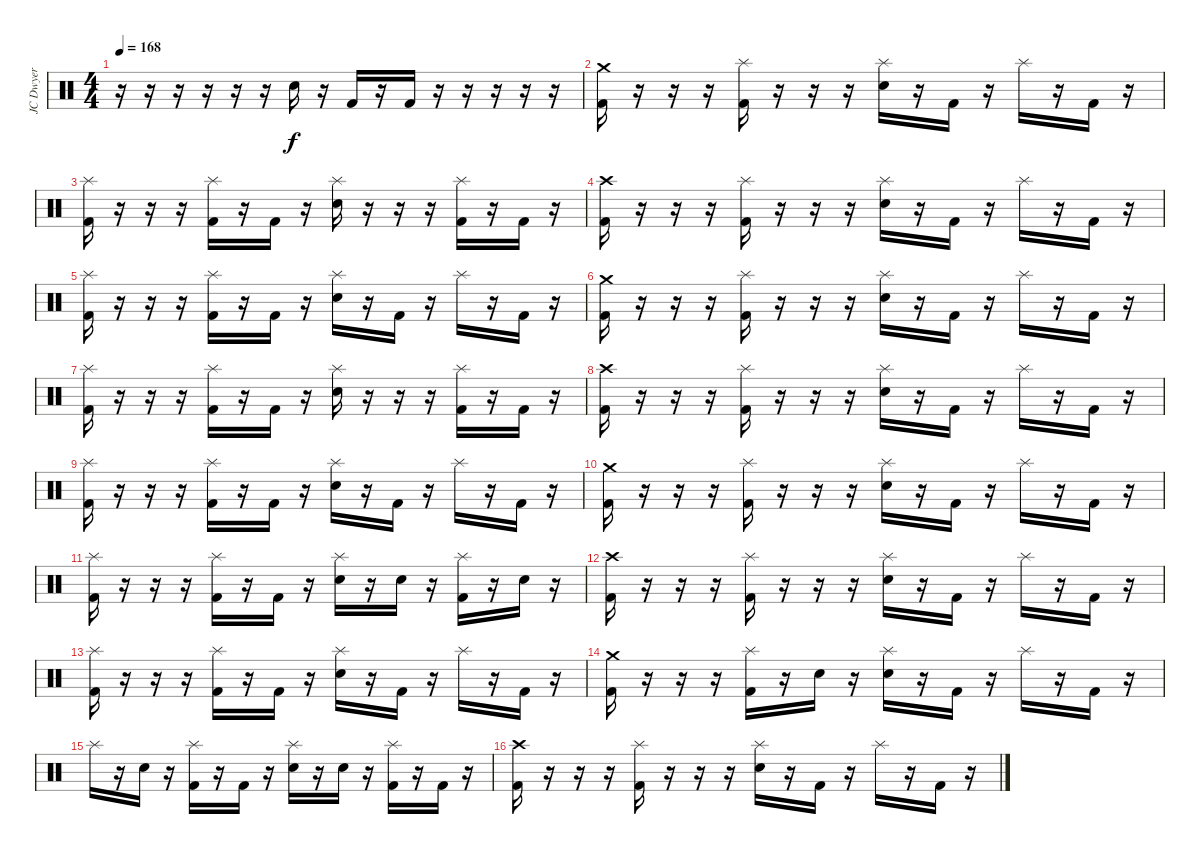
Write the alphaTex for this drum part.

\track ("JC Dwyer" "JC Dwyer") {instrument percussion}
\staff {score}
\articulation defaults
\ts (4 4)
\tempo 168
\clef neutral
\ks c
r.16{dy f} r.16 r.16 r.16 r.16 r.16 "Electric Snare (hit)".16 r.16 "Kick (hit) 2".16 r.16 "Kick (hit) 2".16 r.16 r.16 r.16 r.16 r.16 |
("Crash medium (hit)" "Kick (hit) 2").16 r.16 r.16 r.16 ("Splash (hit)" "Kick (hit) 2").16 r.16 r.16 r.16 ("Splash (hit)" "Electric Snare (hit)").16 r.16 "Kick (hit) 2".16 r.16 "Splash (hit)".16 r.16 "Kick (hit) 2".16 r.16 |
("Splash (hit)" "Kick (hit) 2").16 r.16 r.16 r.16 ("Splash (hit)" "Kick (hit) 2").16 r.16 "Kick (hit) 2".16 r.16 ("Splash (hit)" "Electric Snare (hit)").16 r.16 r.16 r.16 ("Splash (hit)" "Kick (hit) 2").16 r.16 "Kick (hit) 2".16 r.16 |
("Crash high (hit)" "Kick (hit) 2").16 r.16 r.16 r.16 ("Splash (hit)" "Kick (hit) 2").16 r.16 r.16 r.16 ("Splash (hit)" "Electric Snare (hit)").16 r.16 "Kick (hit) 2".16 r.16 "Splash (hit)".16 r.16 "Kick (hit) 2".16 r.16 |
("Splash (hit)" "Kick (hit) 2").16 r.16 r.16 r.16 ("Splash (hit)" "Kick (hit) 2").16 r.16 "Kick (hit) 2".16 r.16 ("Splash (hit)" "Electric Snare (hit)").16 r.16 "Kick (hit) 2".16 r.16 "Splash (hit)".16 r.16 "Kick (hit) 2".16 r.16 |
("Crash medium (hit)" "Kick (hit) 2").16 r.16 r.16 r.16 ("Splash (hit)" "Kick (hit) 2").16 r.16 r.16 r.16 ("Splash (hit)" "Electric Snare (hit)").16 r.16 "Kick (hit) 2".16 r.16 "Splash (hit)".16 r.16 "Kick (hit) 2".16 r.16 |
("Splash (hit)" "Kick (hit) 2").16 r.16 r.16 r.16 ("Splash (hit)" "Kick (hit) 2").16 r.16 "Kick (hit) 2".16 r.16 ("Splash (hit)" "Electric Snare (hit)").16 r.16 r.16 r.16 ("Splash (hit)" "Kick (hit) 2").16 r.16 "Kick (hit) 2".16 r.16 |
("Crash high (hit)" "Kick (hit) 2").16 r.16 r.16 r.16 ("Splash (hit)" "Kick (hit) 2").16 r.16 r.16 r.16 ("Splash (hit)" "Electric Snare (hit)").16 r.16 "Kick (hit) 2".16 r.16 "Splash (hit)".16 r.16 "Kick (hit) 2".16 r.16 |
("Splash (hit)" "Kick (hit) 2").16 r.16 r.16 r.16 ("Splash (hit)" "Kick (hit) 2").16 r.16 "Kick (hit) 2".16 r.16 ("Splash (hit)" "Electric Snare (hit)").16 r.16 "Kick (hit) 2".16 r.16 "Splash (hit)".16 r.16 "Kick (hit) 2".16 r.16 |
("Crash medium (hit)" "Kick (hit) 2").16 r.16 r.16 r.16 ("Splash (hit)" "Kick (hit) 2").16 r.16 r.16 r.16 ("Splash (hit)" "Electric Snare (hit)").16 r.16 "Kick (hit) 2".16 r.16 "Splash (hit)".16 r.16 "Kick (hit) 2".16 r.16 |
("Splash (hit)" "Kick (hit) 2").16 r.16 r.16 r.16 ("Splash (hit)" "Kick (hit) 2").16 r.16 "Kick (hit) 2".16 r.16 ("Splash (hit)" "Electric Snare (hit)").16 r.16 "Electric Snare (hit)".16 r.16 ("Splash (hit)" "Kick (hit) 2").16 r.16 "Electric Snare (hit)".16 r.16 |
("Crash high (hit)" "Kick (hit) 2").16 r.16 r.16 r.16 ("Splash (hit)" "Kick (hit) 2").16 r.16 r.16 r.16 ("Splash (hit)" "Electric Snare (hit)").16 r.16 "Kick (hit) 2".16 r.16 "Splash (hit)".16 r.16 "Kick (hit) 2".16 r.16 |
("Splash (hit)" "Kick (hit) 2").16 r.16 r.16 r.16 ("Splash (hit)" "Kick (hit) 2").16 r.16 "Kick (hit) 2".16 r.16 ("Splash (hit)" "Electric Snare (hit)").16 r.16 "Kick (hit) 2".16 r.16 "Splash (hit)".16 r.16 "Kick (hit) 2".16 r.16 |
("Crash medium (hit)" "Kick (hit) 2").16 r.16 r.16 r.16 ("Splash (hit)" "Kick (hit) 2").16 r.16 "Electric Snare (hit)".16 r.16 ("Splash (hit)" "Electric Snare (hit)").16 r.16 "Kick (hit) 2".16 r.16 "Splash (hit)".16 r.16 "Kick (hit) 2".16 r.16 |
"Splash (hit)".16 r.16 "Electric Snare (hit)".16 r.16 ("Splash (hit)" "Kick (hit) 2").16 r.16 "Kick (hit) 2".16 r.16 ("Splash (hit)" "Electric Snare (hit)").16 r.16 "Electric Snare (hit)".16 r.16 ("Splash (hit)" "Kick (hit) 2").16 r.16 "Kick (hit) 2".16 r.16 |
("Crash high (hit)" "Kick (hit) 2").16 r.16 r.16 r.16 ("Splash (hit)" "Kick (hit) 2").16 r.16 r.16 r.16 ("Splash (hit)" "Electric Snare (hit)").16 r.16 "Kick (hit) 2".16 r.16 "Splash (hit)".16 r.16 "Kick (hit) 2".16 r.16
